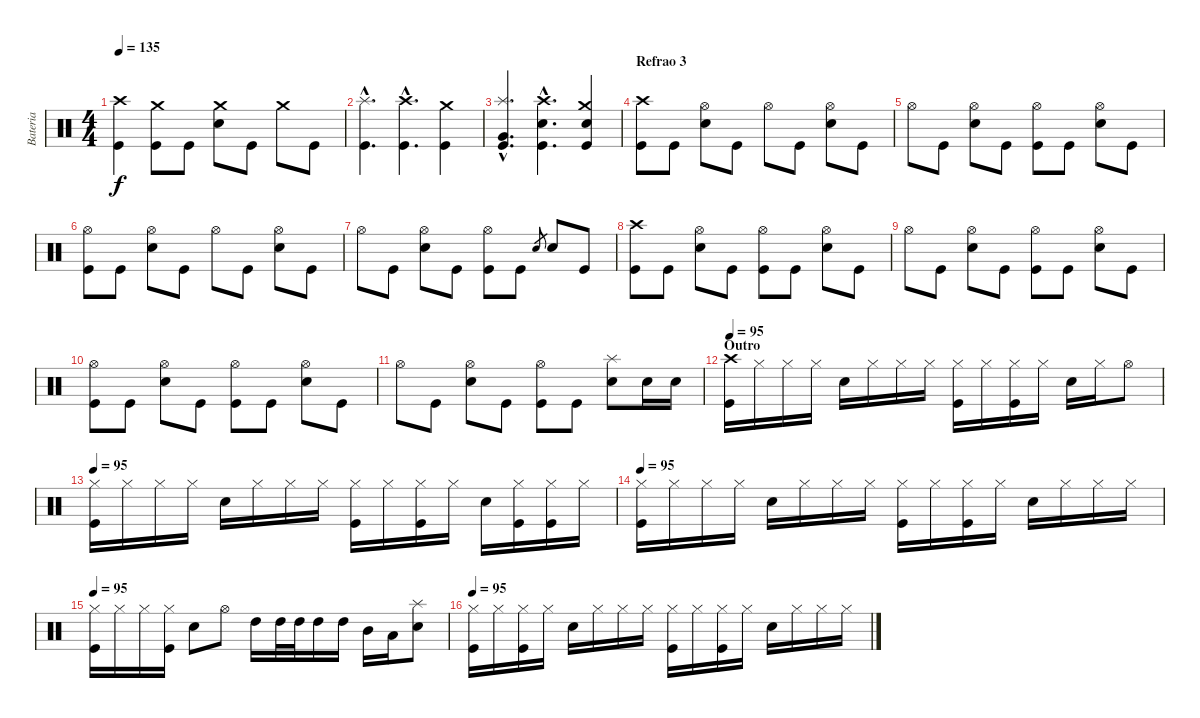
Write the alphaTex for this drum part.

\track ("Bateria" "Bateria") {instrument percussion}
\staff {score}
\articulation defaults
\ts (4 4)
\tempo 135
\clef neutral
\ks c
("Crash high (hit)" "Kick (hit)").4{dy f} ("Crash medium (hit)" "Kick (hit)").8 "Kick (hit)".8 ("Crash medium (hit)" "Snare (hit) 2").8 "Kick (hit)".8 "Crash medium (hit)".8 "Kick (hit)".8 |
("Splash (hit)"{hac} "Kick (hit)"{hac}).4{d} ("Crash high (hit)"{hac} "Kick (hit)"{hac}).4{d} ("Crash medium (hit)" "Kick (hit)").4 |
("Splash (hit)"{hac} "Very Low Tom (hit)"{hac} "Kick (hit)"{hac}).4{d} ("Crash high (hit)"{hac} "Snare (hit) 2"{hac} "Kick (hit)"{hac}).4{d} ("Crash medium (hit)" "Snare (hit) 2" "Kick (hit)").4 |
\section ("" "Refrao 3")
("Crash high (hit)" "Kick (hit)").8 "Kick (hit)".8 ("Hi-Hat (open)" "Snare (hit) 2").8 "Kick (hit)".8 "Hi-Hat (open)".8 "Kick (hit)".8 ("Hi-Hat (open)" "Snare (hit) 2").8 "Kick (hit)".8 |
"Hi-Hat (open)".8 "Kick (hit)".8 ("Hi-Hat (open)" "Snare (hit) 2").8 "Kick (hit)".8 ("Hi-Hat (open)" "Kick (hit)").8 "Kick (hit)".8 ("Hi-Hat (open)" "Snare (hit) 2").8 "Kick (hit)".8 |
("Hi-Hat (open)" "Kick (hit)").8 "Kick (hit)".8 ("Hi-Hat (open)" "Snare (hit) 2").8 "Kick (hit)".8 "Hi-Hat (open)".8 "Kick (hit)".8 ("Hi-Hat (open)" "Snare (hit) 2").8 "Kick (hit)".8 |
"Hi-Hat (open)".8 "Kick (hit)".8 ("Hi-Hat (open)" "Snare (hit) 2").8 "Kick (hit)".8 ("Hi-Hat (open)" "Kick (hit)").8 "Kick (hit)".8 "Snare (hit) 2".8{gr} "Snare (hit) 2".8 "Kick (hit)".8 |
("Crash high (hit)" "Kick (hit)").8 "Kick (hit)".8 ("Hi-Hat (open)" "Snare (hit) 2").8 "Kick (hit)".8 ("Hi-Hat (open)" "Kick (hit)").8 "Kick (hit)".8 ("Hi-Hat (open)" "Snare (hit) 2").8 "Kick (hit)".8 |
"Hi-Hat (open)".8 "Kick (hit)".8 ("Hi-Hat (open)" "Snare (hit) 2").8 "Kick (hit)".8 ("Hi-Hat (open)" "Kick (hit)").8 "Kick (hit)".8 ("Hi-Hat (open)" "Snare (hit) 2").8 "Kick (hit)".8 |
("Hi-Hat (open)" "Kick (hit)").8 "Kick (hit)".8 ("Hi-Hat (open)" "Snare (hit) 2").8 "Kick (hit)".8 ("Hi-Hat (open)" "Kick (hit)").8 "Kick (hit)".8 ("Hi-Hat (open)" "Snare (hit) 2").8 "Kick (hit)".8 |
"Hi-Hat (open)".8 "Kick (hit)".8 ("Hi-Hat (open)" "Snare (hit) 2").8 "Kick (hit)".8 ("Hi-Hat (open)" "Kick (hit)").8 "Kick (hit)".8 ("Splash (hit)" "Snare (hit) 2").8 "Snare (hit) 2".16 "Snare (hit) 2".16 |
\section ("" "Outro")
\tempo 95
("Crash high (hit)" "Kick (hit)").16 "Hi-Hat (closed)".16 "Hi-Hat (closed)".16 "Hi-Hat (closed)".16 "Snare (hit) 2".16 "Hi-Hat (closed)".16 "Hi-Hat (closed)".16 "Hi-Hat (closed)".16 ("Hi-Hat (closed)" "Kick (hit)").16 "Hi-Hat (closed)".16 ("Hi-Hat (closed)" "Kick (hit)").16 "Hi-Hat (closed)".16 "Snare (hit) 2".16 "Hi-Hat (closed)".16 "Hi-Hat (open)".8 |
\tempo 95
("Hi-Hat (closed)" "Kick (hit)").16 "Hi-Hat (closed)".16 "Hi-Hat (closed)".16 "Hi-Hat (closed)".16 "Snare (hit) 2".16 "Hi-Hat (closed)".16 "Hi-Hat (closed)".16 "Hi-Hat (closed)".16 ("Hi-Hat (closed)" "Kick (hit)").16 "Hi-Hat (closed)".16 ("Hi-Hat (closed)" "Kick (hit)").16 "Hi-Hat (closed)".16 "Snare (hit) 2".16 ("Hi-Hat (closed)" "Kick (hit)").16 ("Hi-Hat (closed)" "Kick (hit)").16 "Hi-Hat (closed)".16 |
\tempo 95
("Hi-Hat (closed)" "Kick (hit)").16 "Hi-Hat (closed)".16 "Hi-Hat (closed)".16 "Hi-Hat (closed)".16 "Snare (hit) 2".16 "Hi-Hat (closed)".16 "Hi-Hat (closed)".16 "Hi-Hat (closed)".16 ("Hi-Hat (closed)" "Kick (hit)").16 "Hi-Hat (closed)".16 ("Hi-Hat (closed)" "Kick (hit)").16 "Hi-Hat (closed)".16 "Snare (hit) 2".16 "Hi-Hat (closed)".16 "Hi-Hat (closed)".16 "Hi-Hat (closed)".16 |
\tempo 95
("Hi-Hat (closed)" "Kick (hit)").16 "Hi-Hat (closed)".16 "Hi-Hat (closed)".16 ("Hi-Hat (closed)" "Kick (hit)").16 "Snare (hit) 2".8 "Hi-Hat (open)".8 "High Tom (hit)".16 "High Tom (hit)".32 "High Tom (hit)".32 "High Tom (hit)".16 "High Tom (hit)".16 "Mid Tom (hit)".16 "Low Tom (hit)".16 ("Splash (hit)" "Snare (hit) 2").8 |
\tempo 95
("Hi-Hat (closed)" "Kick (hit)").16 "Hi-Hat (closed)".16 ("Hi-Hat (closed)" "Kick (hit)").16 "Hi-Hat (closed)".16 "Snare (hit) 2".16 "Hi-Hat (closed)".16 "Hi-Hat (closed)".16 "Hi-Hat (closed)".16 ("Hi-Hat (closed)" "Kick (hit)").16 "Hi-Hat (closed)".16 ("Hi-Hat (closed)" "Kick (hit)").16 "Hi-Hat (closed)".16 "Snare (hit) 2".16 "Hi-Hat (closed)".16 "Hi-Hat (closed)".16 "Hi-Hat (closed)".16
